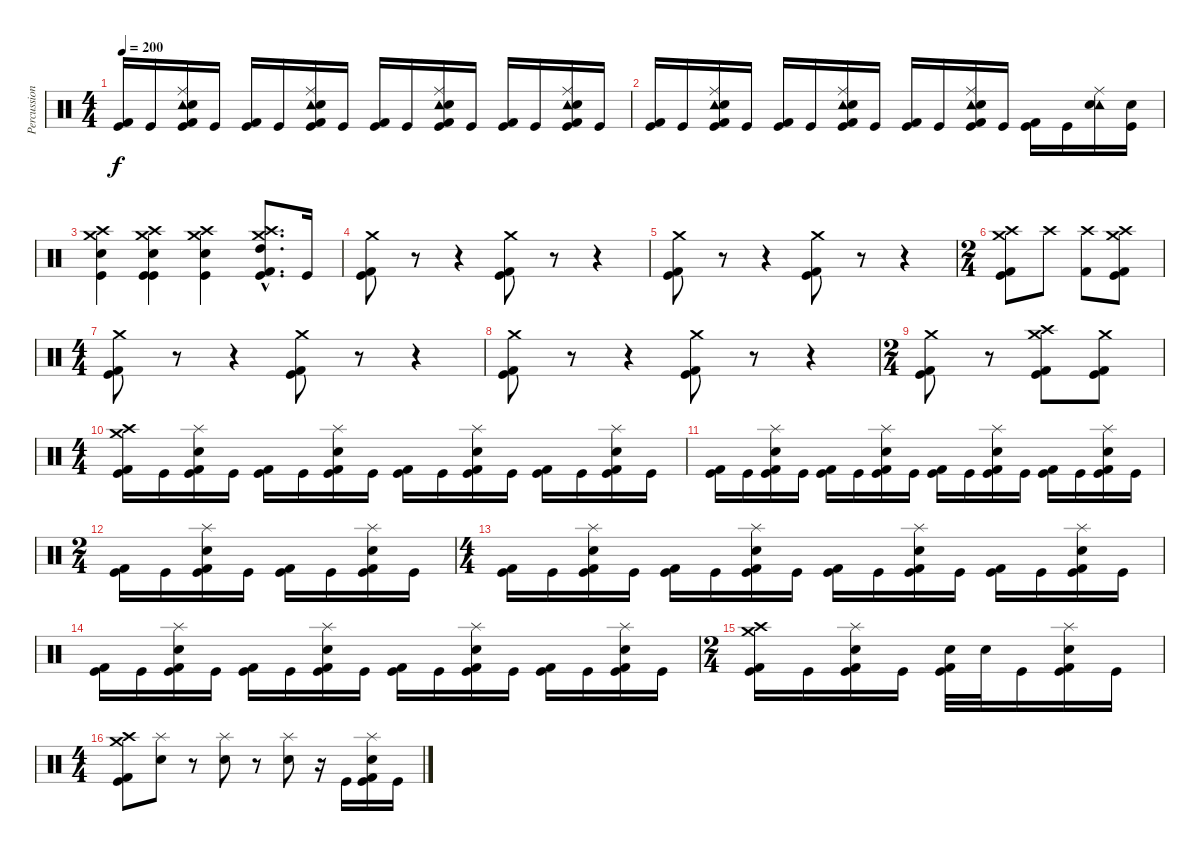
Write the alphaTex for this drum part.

\track ("Percussion" "Percussion") {instrument percussion}
\staff {score}
\articulation defaults
\ts (4 4)
\tempo 200
\clef neutral
\ks c
("Kick (hit) 2" "Kick (hit)").16{dy f} "Kick (hit)".16 ("Ride (middle)" "Tambourine (hit)" "Snare (hit) 2" "Kick (hit) 2" "Kick (hit)").16 "Kick (hit)".16 ("Kick (hit) 2" "Kick (hit)").16 "Kick (hit)".16 ("Ride (middle)" "Tambourine (hit)" "Snare (hit) 2" "Kick (hit) 2" "Kick (hit)").16 "Kick (hit)".16 ("Kick (hit) 2" "Kick (hit)").16 "Kick (hit)".16 ("Ride (middle)" "Tambourine (hit)" "Snare (hit) 2" "Kick (hit) 2" "Kick (hit)").16 "Kick (hit)".16 ("Kick (hit) 2" "Kick (hit)").16 "Kick (hit)".16 ("Ride (middle)" "Tambourine (hit)" "Snare (hit) 2" "Kick (hit) 2" "Kick (hit)").16 "Kick (hit)".16 |
("Kick (hit) 2" "Kick (hit)").16 "Kick (hit)".16 ("Ride (middle)" "Tambourine (hit)" "Snare (hit) 2" "Kick (hit) 2" "Kick (hit)").16 "Kick (hit)".16 ("Kick (hit) 2" "Kick (hit)").16 "Kick (hit)".16 ("Ride (middle)" "Tambourine (hit)" "Snare (hit) 2" "Kick (hit) 2" "Kick (hit)").16 "Kick (hit)".16 ("Kick (hit) 2" "Kick (hit)").16 "Kick (hit)".16 ("Ride (middle)" "Tambourine (hit)" "Snare (hit) 2" "Kick (hit) 2" "Kick (hit)").16 "Kick (hit)".16 ("Kick (hit) 2" "Kick (hit)").16 "Kick (hit)".16 ("Ride (middle)" "Tambourine (hit)" "Snare (hit) 2").16 ("Snare (hit) 2" "Kick (hit)").16 |
("Crash high (hit)" "Crash medium (hit)" "Snare (hit) 2" "Kick (hit)").4 ("Crash high (hit)" "Crash medium (hit)" "Snare (hit) 2" "Kick (hit)" "Kick (hit)").4 ("Crash high (hit)" "Crash medium (hit)" "Snare (hit) 2" "Kick (hit)").4 ("Crash high (hit)"{hac} "Crash medium (hit)"{hac} "High Tom (hit)"{hac} "Kick (hit) 2"{hac} "Kick (hit)"{hac}).8{d} "Kick (hit)".16 |
("Crash medium (hit)" "Kick (hit) 2" "Kick (hit)").8 r.8 r.4 ("Crash medium (hit)" "Kick (hit) 2" "Kick (hit)").8 r.8 r.4 |
("Crash medium (hit)" "Kick (hit) 2" "Kick (hit)").8 r.8 r.4 ("Crash medium (hit)" "Kick (hit) 2" "Kick (hit)").8 r.8 r.4 |
\ts (2 4)
("Crash high (hit)" "Crash medium (hit)" "Kick (hit) 2" "Kick (hit)").8 "Crash high (hit)".8 ("Crash high (hit)" "Kick (hit) 2").8 ("Crash high (hit)" "Crash medium (hit)" "Kick (hit) 2" "Kick (hit)").8 |
\ts (4 4)
("Crash medium (hit)" "Kick (hit) 2" "Kick (hit)").8 r.8 r.4 ("Crash medium (hit)" "Kick (hit) 2" "Kick (hit)").8 r.8 r.4 |
("Crash medium (hit)" "Kick (hit) 2" "Kick (hit)").8 r.8 r.4 ("Crash medium (hit)" "Kick (hit) 2" "Kick (hit)").8 r.8 r.4 |
\ts (2 4)
("Crash medium (hit)" "Kick (hit) 2" "Kick (hit)").8 r.8 ("Crash high (hit)" "Crash medium (hit)" "Kick (hit) 2" "Kick (hit)").8 ("Crash medium (hit)" "Kick (hit) 2" "Kick (hit)").8 |
\ts (4 4)
("Crash high (hit)" "Crash medium (hit)" "Kick (hit) 2" "Kick (hit)").16 "Kick (hit)".16 ("Splash (hit)" "Snare (hit) 2" "Kick (hit) 2" "Kick (hit)").16 "Kick (hit)".16 ("Kick (hit) 2" "Kick (hit)").16 "Kick (hit)".16 ("Splash (hit)" "Snare (hit) 2" "Kick (hit) 2" "Kick (hit)").16 "Kick (hit)".16 ("Kick (hit) 2" "Kick (hit)").16 "Kick (hit)".16 ("Splash (hit)" "Snare (hit) 2" "Kick (hit) 2" "Kick (hit)").16 "Kick (hit)".16 ("Kick (hit) 2" "Kick (hit)").16 "Kick (hit)".16 ("Splash (hit)" "Snare (hit) 2" "Kick (hit) 2" "Kick (hit)").16 "Kick (hit)".16 |
("Kick (hit) 2" "Kick (hit)").16 "Kick (hit)".16 ("Splash (hit)" "Snare (hit) 2" "Kick (hit) 2" "Kick (hit)").16 "Kick (hit)".16 ("Kick (hit) 2" "Kick (hit)").16 "Kick (hit)".16 ("Splash (hit)" "Snare (hit) 2" "Kick (hit) 2" "Kick (hit)").16 "Kick (hit)".16 ("Kick (hit) 2" "Kick (hit)").16 "Kick (hit)".16 ("Splash (hit)" "Snare (hit) 2" "Kick (hit) 2" "Kick (hit)").16 "Kick (hit)".16 ("Kick (hit) 2" "Kick (hit)").16 "Kick (hit)".16 ("Splash (hit)" "Snare (hit) 2" "Kick (hit) 2" "Kick (hit)").16 "Kick (hit)".16 |
\ts (2 4)
("Kick (hit) 2" "Kick (hit)").16 "Kick (hit)".16 ("Splash (hit)" "Snare (hit) 2" "Kick (hit) 2" "Kick (hit)").16 "Kick (hit)".16 ("Kick (hit) 2" "Kick (hit)").16 "Kick (hit)".16 ("Splash (hit)" "Snare (hit) 2" "Kick (hit) 2" "Kick (hit)").16 "Kick (hit)".16 |
\ts (4 4)
("Kick (hit) 2" "Kick (hit)").16 "Kick (hit)".16 ("Splash (hit)" "Snare (hit) 2" "Kick (hit) 2" "Kick (hit)").16 "Kick (hit)".16 ("Kick (hit) 2" "Kick (hit)").16 "Kick (hit)".16 ("Splash (hit)" "Snare (hit) 2" "Kick (hit) 2" "Kick (hit)").16 "Kick (hit)".16 ("Kick (hit) 2" "Kick (hit)").16 "Kick (hit)".16 ("Splash (hit)" "Snare (hit) 2" "Kick (hit) 2" "Kick (hit)").16 "Kick (hit)".16 ("Kick (hit) 2" "Kick (hit)").16 "Kick (hit)".16 ("Splash (hit)" "Snare (hit) 2" "Kick (hit) 2" "Kick (hit)").16 "Kick (hit)".16 |
("Kick (hit) 2" "Kick (hit)").16 "Kick (hit)".16 ("Splash (hit)" "Snare (hit) 2" "Kick (hit) 2" "Kick (hit)").16 "Kick (hit)".16 ("Kick (hit) 2" "Kick (hit)").16 "Kick (hit)".16 ("Splash (hit)" "Snare (hit) 2" "Kick (hit) 2" "Kick (hit)").16 "Kick (hit)".16 ("Kick (hit) 2" "Kick (hit)").16 "Kick (hit)".16 ("Splash (hit)" "Snare (hit) 2" "Kick (hit) 2" "Kick (hit)").16 "Kick (hit)".16 ("Kick (hit) 2" "Kick (hit)").16 "Kick (hit)".16 ("Splash (hit)" "Snare (hit) 2" "Kick (hit) 2" "Kick (hit)").16 "Kick (hit)".16 |
\ts (2 4)
("Crash high (hit)" "Crash medium (hit)" "Kick (hit) 2" "Kick (hit)").16 "Kick (hit)".16 ("Splash (hit)" "Snare (hit) 2" "Kick (hit) 2" "Kick (hit)").16 "Kick (hit)".16 ("Snare (hit) 2" "Kick (hit) 2" "Kick (hit)").32 "Snare (hit) 2".32 "Kick (hit)".16 ("Splash (hit)" "Snare (hit) 2" "Kick (hit) 2" "Kick (hit)").16 "Kick (hit)".16 |
\ts (4 4)
("Crash high (hit)" "Crash medium (hit)" "Kick (hit) 2" "Kick (hit)").8 ("Splash (hit)" "Snare (hit) 2").8 r.8 ("Splash (hit)" "Snare (hit) 2").8 r.8 ("Splash (hit)" "Snare (hit) 2").8 r.16 "Kick (hit)".16 ("Splash (hit)" "Snare (hit) 2" "Kick (hit) 2" "Kick (hit)").16 "Kick (hit)".16
